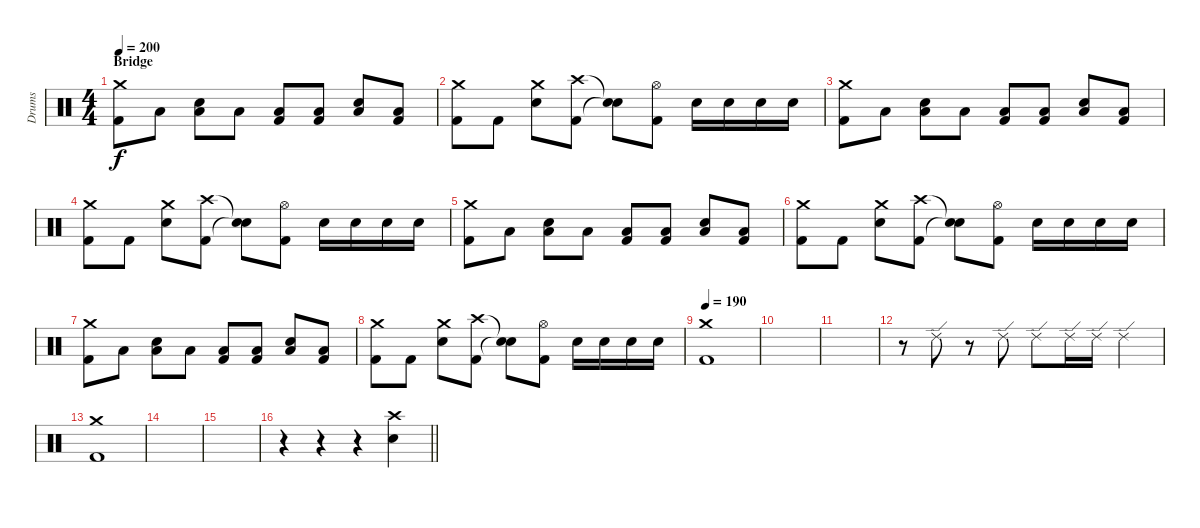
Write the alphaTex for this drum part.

\track ("Drums" "Drums") {instrument percussion}
\staff {score}
\articulation defaults
\ts (4 4)
\section ("" "Bridge")
\tempo 200
\clef neutral
\ks c
("Crash medium (hit)" "Kick (hit) 2").8{dy f} "Low Floor Tom (hit)".8 ("Low Floor Tom (hit)" "Electric Snare (hit)").8 "Low Floor Tom (hit)".8 ("Low Floor Tom (hit)" "Kick (hit) 2").8 ("Low Floor Tom (hit)" "Kick (hit) 2").8 ("Low Floor Tom (hit)" "Electric Snare (hit)").8 ("Low Floor Tom (hit)" "Kick (hit) 2").8 |
("Crash medium (hit)" "Kick (hit) 2").8 "Kick (hit) 2".8 ("Crash medium (hit)" "Electric Snare (hit)").8 ("Crash high (hit)" "Kick (hit) 2").8 ("Snare (hit)"{t} "Snare (hit)"{t}).8 ("Hi-Hat (open)" "Kick (hit) 2").8 "Electric Snare (hit)".16 "Electric Snare (hit)".16 "Electric Snare (hit)".16 "Electric Snare (hit)".16 |
("Crash medium (hit)" "Kick (hit) 2").8 "Low Floor Tom (hit)".8 ("Low Floor Tom (hit)" "Electric Snare (hit)").8 "Low Floor Tom (hit)".8 ("Low Floor Tom (hit)" "Kick (hit) 2").8 ("Low Floor Tom (hit)" "Kick (hit) 2").8 ("Low Floor Tom (hit)" "Electric Snare (hit)").8 ("Low Floor Tom (hit)" "Kick (hit) 2").8 |
("Crash medium (hit)" "Kick (hit) 2").8 "Kick (hit) 2".8 ("Crash medium (hit)" "Electric Snare (hit)").8 ("Crash high (hit)" "Kick (hit) 2").8 ("Snare (hit)"{t} "Snare (hit)"{t}).8 ("Hi-Hat (open)" "Kick (hit) 2").8 "Electric Snare (hit)".16 "Electric Snare (hit)".16 "Electric Snare (hit)".16 "Electric Snare (hit)".16 |
("Crash medium (hit)" "Kick (hit) 2").8 "Low Floor Tom (hit)".8 ("Low Floor Tom (hit)" "Electric Snare (hit)").8 "Low Floor Tom (hit)".8 ("Low Floor Tom (hit)" "Kick (hit) 2").8 ("Low Floor Tom (hit)" "Kick (hit) 2").8 ("Low Floor Tom (hit)" "Electric Snare (hit)").8 ("Low Floor Tom (hit)" "Kick (hit) 2").8 |
("Crash medium (hit)" "Kick (hit) 2").8 "Kick (hit) 2".8 ("Crash medium (hit)" "Electric Snare (hit)").8 ("Crash high (hit)" "Kick (hit) 2").8 ("Snare (hit)"{t} "Snare (hit)"{t}).8 ("Hi-Hat (open)" "Kick (hit) 2").8 "Electric Snare (hit)".16 "Electric Snare (hit)".16 "Electric Snare (hit)".16 "Electric Snare (hit)".16 |
("Crash medium (hit)" "Kick (hit) 2").8 "Low Floor Tom (hit)".8 ("Low Floor Tom (hit)" "Electric Snare (hit)").8 "Low Floor Tom (hit)".8 ("Low Floor Tom (hit)" "Kick (hit) 2").8 ("Low Floor Tom (hit)" "Kick (hit) 2").8 ("Low Floor Tom (hit)" "Electric Snare (hit)").8 ("Low Floor Tom (hit)" "Kick (hit) 2").8 |
("Crash medium (hit)" "Kick (hit) 2").8 "Kick (hit) 2".8 ("Crash medium (hit)" "Electric Snare (hit)").8 ("Crash high (hit)" "Kick (hit) 2").8 ("Snare (hit)"{t} "Snare (hit)"{t}).8 ("Hi-Hat (open)" "Kick (hit) 2").8 "Electric Snare (hit)".16 "Electric Snare (hit)".16 "Electric Snare (hit)".16 "Electric Snare (hit)".16 |
\tempo 190
("Crash medium (hit)" "Kick (hit) 2").1 |
|
|
r.8 "Ride (edge) 2".8 r.8 "Ride (edge) 2".8 "Ride (edge) 2".8 "Ride (edge) 2".16 "Ride (edge) 2".16 "Ride (edge) 2".4 |
("Crash medium (hit)" "Kick (hit) 2").1 |
|
|
\barLineRight lightlight
r.4 r.4 r.4 ("Crash high (hit)" "Electric Snare (hit)").4
